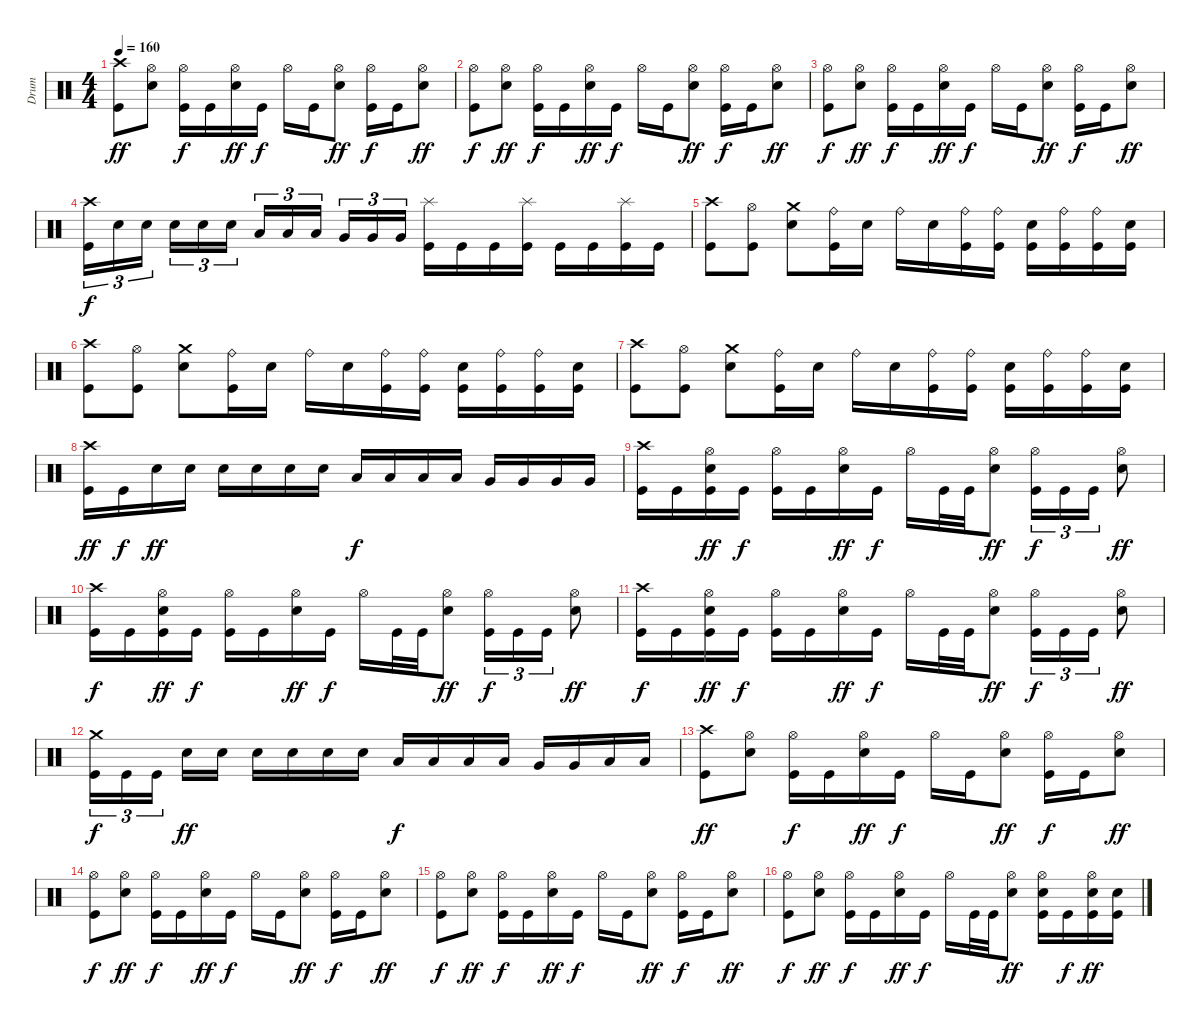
\track ("Drum" "Drum") {instrument percussion}
\staff {score}
\articulation defaults
\ts (4 4)
\tempo 160
\clef neutral
\ks c
("Kick (hit)" "Crash high (hit)").8{dy ff} ("Electric Snare (hit)" "Hi-Hat (open)").8 ("Kick (hit)" "Hi-Hat (open)").16{dy f} "Kick (hit)".16 ("Electric Snare (hit)" "Hi-Hat (open)").16{dy ff} "Kick (hit)".16{dy f} "Hi-Hat (open)".16 "Kick (hit)".16 ("Electric Snare (hit)" "Hi-Hat (open)").8{dy ff} ("Kick (hit)" "Hi-Hat (open)").16{dy f} "Kick (hit)".16 ("Electric Snare (hit)" "Hi-Hat (open)").8{dy ff} |
("Kick (hit)" "Hi-Hat (open)").8{dy f} ("Electric Snare (hit)" "Hi-Hat (open)").8{dy ff} ("Kick (hit)" "Hi-Hat (open)").16{dy f} "Kick (hit)".16 ("Electric Snare (hit)" "Hi-Hat (open)").16{dy ff} "Kick (hit)".16{dy f} "Hi-Hat (open)".16 "Kick (hit)".16 ("Electric Snare (hit)" "Hi-Hat (open)").8{dy ff} ("Kick (hit)" "Hi-Hat (open)").16{dy f} "Kick (hit)".16 ("Electric Snare (hit)" "Hi-Hat (open)").8{dy ff} |
("Kick (hit)" "Hi-Hat (open)").8{dy f} ("Electric Snare (hit)" "Hi-Hat (open)").8{dy ff} ("Kick (hit)" "Hi-Hat (open)").16{dy f} "Kick (hit)".16 ("Electric Snare (hit)" "Hi-Hat (open)").16{dy ff} "Kick (hit)".16{dy f} "Hi-Hat (open)".16 "Kick (hit)".16 ("Electric Snare (hit)" "Hi-Hat (open)").8{dy ff} ("Kick (hit)" "Hi-Hat (open)").16{dy f} "Kick (hit)".16 ("Electric Snare (hit)" "Hi-Hat (open)").8{dy ff} |
("Kick (hit)" "Crash high (hit)").16{tu (3 2) dy f} "Electric Snare (hit)".16{tu (3 2)} "Electric Snare (hit)".16{tu (3 2)} "Electric Snare (hit)".16{tu (3 2)} "Electric Snare (hit)".16{tu (3 2)} "Electric Snare (hit)".16{tu (3 2)} "Low Tom (hit)".16{tu (3 2)} "Low Tom (hit)".16{tu (3 2)} "Low Tom (hit)".16{tu (3 2)} "Very Low Tom (hit)".16{tu (3 2)} "Very Low Tom (hit)".16{tu (3 2)} "Very Low Tom (hit)".16{tu (3 2)} ("Kick (hit)" "Splash (hit)").16 "Kick (hit)".16 "Kick (hit)".16 ("Kick (hit)" "Splash (hit)").16 "Kick (hit)".16 "Kick (hit)".16 ("Kick (hit)" "Splash (hit)").16 "Kick (hit)".16 |
("Kick (hit)" "Crash high (hit)").8 ("Kick (hit)" "Hi-Hat (open)").8 ("Electric Snare (hit)" "Crash medium (hit)").8 ("Kick (hit)" "Ride (bell)").16 "Electric Snare (hit)".16 "Ride (bell)".16 "Electric Snare (hit)".16 ("Kick (hit)" "Ride (bell)").16 ("Kick (hit)" "Ride (bell)").16 ("Kick (hit)" "Electric Snare (hit)").16 ("Kick (hit)" "Ride (bell)").16 ("Kick (hit)" "Ride (bell)").16 ("Kick (hit)" "Electric Snare (hit)").16 |
("Kick (hit)" "Crash high (hit)").8 ("Kick (hit)" "Hi-Hat (open)").8 ("Electric Snare (hit)" "Crash medium (hit)").8 ("Kick (hit)" "Ride (bell)").16 "Electric Snare (hit)".16 "Ride (bell)".16 "Electric Snare (hit)".16 ("Kick (hit)" "Ride (bell)").16 ("Kick (hit)" "Ride (bell)").16 ("Kick (hit)" "Electric Snare (hit)").16 ("Kick (hit)" "Ride (bell)").16 ("Kick (hit)" "Ride (bell)").16 ("Kick (hit)" "Electric Snare (hit)").16 |
("Kick (hit)" "Crash high (hit)").8 ("Kick (hit)" "Hi-Hat (open)").8 ("Electric Snare (hit)" "Crash medium (hit)").8 ("Kick (hit)" "Ride (bell)").16 "Electric Snare (hit)".16 "Ride (bell)".16 "Electric Snare (hit)".16 ("Kick (hit)" "Ride (bell)").16 ("Kick (hit)" "Ride (bell)").16 ("Kick (hit)" "Electric Snare (hit)").16 ("Kick (hit)" "Ride (bell)").16 ("Kick (hit)" "Ride (bell)").16 ("Kick (hit)" "Electric Snare (hit)").16 |
("Kick (hit)" "Crash high (hit)").16{dy ff} "Kick (hit)".16{dy f} "Electric Snare (hit)".16{dy ff} "Electric Snare (hit)".16 "Electric Snare (hit)".16 "Electric Snare (hit)".16 "Electric Snare (hit)".16 "Electric Snare (hit)".16 "Low Tom (hit)".16{dy f} "Low Tom (hit)".16 "Low Tom (hit)".16 "Low Tom (hit)".16 "Very Low Tom (hit)".16 "Very Low Tom (hit)".16 "Very Low Tom (hit)".16 "Very Low Tom (hit)".16 |
("Kick (hit)" "Crash high (hit)").16 "Kick (hit)".16 ("Kick (hit)" "Electric Snare (hit)" "Hi-Hat (open)").16{dy ff} "Kick (hit)".16{dy f} ("Kick (hit)" "Hi-Hat (open)").16 "Kick (hit)".16 ("Electric Snare (hit)" "Hi-Hat (open)").16{dy ff} "Kick (hit)".16{dy f} "Hi-Hat (open)".16 "Kick (hit)".32 "Kick (hit)".32 ("Electric Snare (hit)" "Hi-Hat (open)").8{dy ff} ("Kick (hit)" "Hi-Hat (open)").16{tu (3 2) dy f} "Kick (hit)".16{tu (3 2)} "Kick (hit)".16{tu (3 2)} ("Electric Snare (hit)" "Hi-Hat (open)").8{dy ff} |
("Kick (hit)" "Crash high (hit)").16{dy f} "Kick (hit)".16 ("Kick (hit)" "Electric Snare (hit)" "Hi-Hat (open)").16{dy ff} "Kick (hit)".16{dy f} ("Kick (hit)" "Hi-Hat (open)").16 "Kick (hit)".16 ("Electric Snare (hit)" "Hi-Hat (open)").16{dy ff} "Kick (hit)".16{dy f} "Hi-Hat (open)".16 "Kick (hit)".32 "Kick (hit)".32 ("Electric Snare (hit)" "Hi-Hat (open)").8{dy ff} ("Kick (hit)" "Hi-Hat (open)").16{tu (3 2) dy f} "Kick (hit)".16{tu (3 2)} "Kick (hit)".16{tu (3 2)} ("Electric Snare (hit)" "Hi-Hat (open)").8{dy ff} |
("Kick (hit)" "Crash high (hit)").16{dy f} "Kick (hit)".16 ("Kick (hit)" "Electric Snare (hit)" "Hi-Hat (open)").16{dy ff} "Kick (hit)".16{dy f} ("Kick (hit)" "Hi-Hat (open)").16 "Kick (hit)".16 ("Electric Snare (hit)" "Hi-Hat (open)").16{dy ff} "Kick (hit)".16{dy f} "Hi-Hat (open)".16 "Kick (hit)".32 "Kick (hit)".32 ("Electric Snare (hit)" "Hi-Hat (open)").8{dy ff} ("Kick (hit)" "Hi-Hat (open)").16{tu (3 2) dy f} "Kick (hit)".16{tu (3 2)} "Kick (hit)".16{tu (3 2)} ("Electric Snare (hit)" "Hi-Hat (open)").8{dy ff} |
("Kick (hit)" "Crash medium (hit)").16{tu (3 2) dy f} "Kick (hit)".16{tu (3 2)} "Kick (hit)".16{tu (3 2)} "Electric Snare (hit)".16{dy ff} "Electric Snare (hit)".16 "Electric Snare (hit)".16 "Electric Snare (hit)".16 "Electric Snare (hit)".16 "Electric Snare (hit)".16 "Low Tom (hit)".16{dy f} "Low Tom (hit)".16 "Low Tom (hit)".16 "Low Tom (hit)".16 "Very Low Tom (hit)".16 "Very Low Tom (hit)".16 "Low Floor Tom (hit)".16 "Low Floor Tom (hit)".16 |
("Kick (hit)" "Crash high (hit)").8{dy ff} ("Electric Snare (hit)" "Hi-Hat (open)").8 ("Kick (hit)" "Hi-Hat (open)").16{dy f} "Kick (hit)".16 ("Electric Snare (hit)" "Hi-Hat (open)").16{dy ff} "Kick (hit)".16{dy f} "Hi-Hat (open)".16 "Kick (hit)".16 ("Electric Snare (hit)" "Hi-Hat (open)").8{dy ff} ("Kick (hit)" "Hi-Hat (open)").16{dy f} "Kick (hit)".16 ("Electric Snare (hit)" "Hi-Hat (open)").8{dy ff} |
("Kick (hit)" "Hi-Hat (open)").8{dy f} ("Electric Snare (hit)" "Hi-Hat (open)").8{dy ff} ("Kick (hit)" "Hi-Hat (open)").16{dy f} "Kick (hit)".16 ("Electric Snare (hit)" "Hi-Hat (open)").16{dy ff} "Kick (hit)".16{dy f} "Hi-Hat (open)".16 "Kick (hit)".16 ("Electric Snare (hit)" "Hi-Hat (open)").8{dy ff} ("Kick (hit)" "Hi-Hat (open)").16{dy f} "Kick (hit)".16 ("Electric Snare (hit)" "Hi-Hat (open)").8{dy ff} |
("Kick (hit)" "Hi-Hat (open)").8{dy f} ("Electric Snare (hit)" "Hi-Hat (open)").8{dy ff} ("Kick (hit)" "Hi-Hat (open)").16{dy f} "Kick (hit)".16 ("Electric Snare (hit)" "Hi-Hat (open)").16{dy ff} "Kick (hit)".16{dy f} "Hi-Hat (open)".16 "Kick (hit)".16 ("Electric Snare (hit)" "Hi-Hat (open)").8{dy ff} ("Kick (hit)" "Hi-Hat (open)").16{dy f} "Kick (hit)".16 ("Electric Snare (hit)" "Hi-Hat (open)").8{dy ff} |
("Kick (hit)" "Hi-Hat (open)").8{dy f} ("Electric Snare (hit)" "Hi-Hat (open)").8{dy ff} ("Kick (hit)" "Hi-Hat (open)").16{dy f} "Kick (hit)".16 ("Electric Snare (hit)" "Hi-Hat (open)").16{dy ff} "Kick (hit)".16{dy f} "Hi-Hat (open)".16 "Kick (hit)".32 "Kick (hit)".32 ("Electric Snare (hit)" "Hi-Hat (open)").8{dy ff} ("Kick (hit)" "Electric Snare (hit)" "Hi-Hat (open)").16 "Kick (hit)".16{dy f} ("Kick (hit)" "Electric Snare (hit)" "Hi-Hat (open)").16{dy ff} ("Kick (hit)" "Electric Snare (hit)").16
